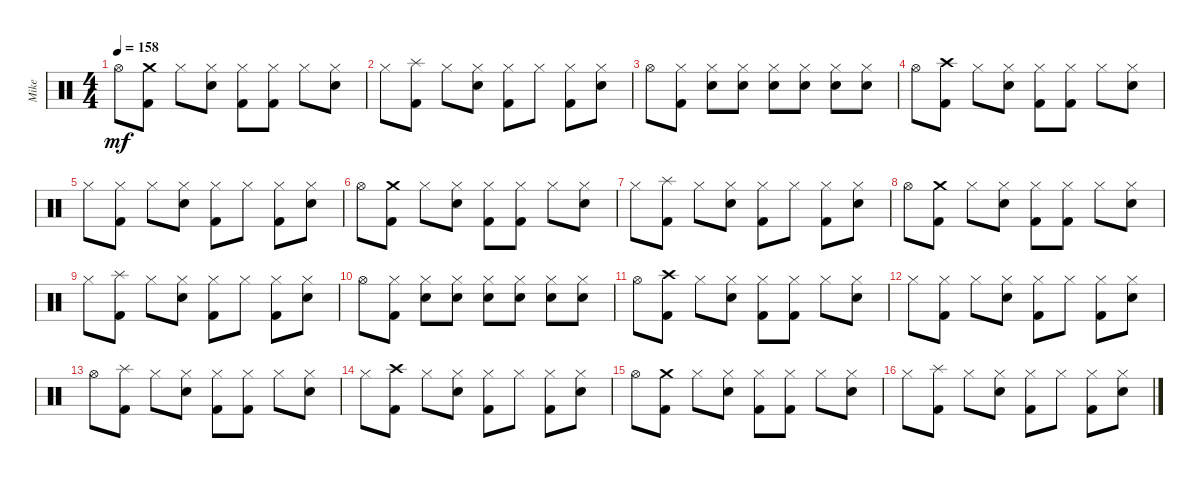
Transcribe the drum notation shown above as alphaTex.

\track ("Mike" "Mike") {instrument percussion}
\staff {score}
\articulation defaults
\ts (4 4)
\tempo 158
\clef neutral
\ks c "Hi-Hat (open)".8{dy mf}
("Crash medium (hit)" "Kick (hit) 2").8 "Hi-Hat (closed)".8 ("Hi-Hat (closed)" "Electric Snare (hit)").8 ("Hi-Hat (closed)" "Kick (hit) 2").8 ("Hi-Hat (closed)" "Kick (hit) 2").8 "Hi-Hat (closed)".8 ("Hi-Hat (closed)" "Electric Snare (hit)").8 |
"Hi-Hat (closed)".8 ("Splash (hit)" "Kick (hit) 2").8 "Hi-Hat (closed)".8 ("Hi-Hat (closed)" "Electric Snare (hit)").8 ("Hi-Hat (closed)" "Kick (hit) 2").8 "Hi-Hat (closed)".8 ("Hi-Hat (closed)" "Kick (hit) 2").8 ("Hi-Hat (closed)" "Electric Snare (hit)").8 |
"Hi-Hat (open)".8 ("Hi-Hat (closed)" "Kick (hit) 2").8 ("Hi-Hat (closed)" "Electric Snare (hit)").8 ("Hi-Hat (closed)" "Electric Snare (hit)").8 ("Hi-Hat (closed)" "Electric Snare (hit)").8 ("Hi-Hat (closed)" "Electric Snare (hit)").8 ("Hi-Hat (closed)" "Electric Snare (hit)").8 ("Hi-Hat (closed)" "Electric Snare (hit)").8 |
"Hi-Hat (open)".8 ("Crash high (hit)" "Kick (hit) 2").8 "Hi-Hat (closed)".8 ("Hi-Hat (closed)" "Electric Snare (hit)").8 ("Hi-Hat (closed)" "Kick (hit) 2").8 ("Hi-Hat (closed)" "Kick (hit) 2").8 "Hi-Hat (closed)".8 ("Hi-Hat (closed)" "Electric Snare (hit)").8 |
"Hi-Hat (closed)".8 ("Hi-Hat (closed)" "Kick (hit) 2").8 "Hi-Hat (closed)".8 ("Hi-Hat (closed)" "Electric Snare (hit)").8 ("Hi-Hat (closed)" "Kick (hit) 2").8 "Hi-Hat (closed)".8 ("Hi-Hat (closed)" "Kick (hit) 2").8 ("Hi-Hat (closed)" "Electric Snare (hit)").8 |
"Hi-Hat (open)".8 ("Crash medium (hit)" "Kick (hit) 2").8 "Hi-Hat (closed)".8 ("Hi-Hat (closed)" "Electric Snare (hit)").8 ("Hi-Hat (closed)" "Kick (hit) 2").8 ("Hi-Hat (closed)" "Kick (hit) 2").8 "Hi-Hat (closed)".8 ("Hi-Hat (closed)" "Electric Snare (hit)").8 |
"Hi-Hat (closed)".8 ("Splash (hit)" "Kick (hit) 2").8 "Hi-Hat (closed)".8 ("Hi-Hat (closed)" "Electric Snare (hit)").8 ("Hi-Hat (closed)" "Kick (hit) 2").8 "Hi-Hat (closed)".8 ("Hi-Hat (closed)" "Kick (hit) 2").8 ("Hi-Hat (closed)" "Electric Snare (hit)").8 |
"Hi-Hat (open)".8 ("Crash medium (hit)" "Kick (hit) 2").8 "Hi-Hat (closed)".8 ("Hi-Hat (closed)" "Electric Snare (hit)").8 ("Hi-Hat (closed)" "Kick (hit) 2").8 ("Hi-Hat (closed)" "Kick (hit) 2").8 "Hi-Hat (closed)".8 ("Hi-Hat (closed)" "Electric Snare (hit)").8 |
"Hi-Hat (closed)".8 ("Splash (hit)" "Kick (hit) 2").8 "Hi-Hat (closed)".8 ("Hi-Hat (closed)" "Electric Snare (hit)").8 ("Hi-Hat (closed)" "Kick (hit) 2").8 "Hi-Hat (closed)".8 ("Hi-Hat (closed)" "Kick (hit) 2").8 ("Hi-Hat (closed)" "Electric Snare (hit)").8 |
"Hi-Hat (open)".8 ("Hi-Hat (closed)" "Kick (hit) 2").8 ("Hi-Hat (closed)" "Electric Snare (hit)").8 ("Hi-Hat (closed)" "Electric Snare (hit)").8 ("Hi-Hat (closed)" "Electric Snare (hit)").8 ("Hi-Hat (closed)" "Electric Snare (hit)").8 ("Hi-Hat (closed)" "Electric Snare (hit)").8 ("Hi-Hat (closed)" "Electric Snare (hit)").8 |
"Hi-Hat (open)".8 ("Crash high (hit)" "Kick (hit) 2").8 "Hi-Hat (closed)".8 ("Hi-Hat (closed)" "Electric Snare (hit)").8 ("Hi-Hat (closed)" "Kick (hit) 2").8 ("Hi-Hat (closed)" "Kick (hit) 2").8 "Hi-Hat (closed)".8 ("Hi-Hat (closed)" "Electric Snare (hit)").8 |
"Hi-Hat (closed)".8 ("Hi-Hat (closed)" "Kick (hit) 2").8 "Hi-Hat (closed)".8 ("Hi-Hat (closed)" "Electric Snare (hit)").8 ("Hi-Hat (closed)" "Kick (hit) 2").8 "Hi-Hat (closed)".8 ("Hi-Hat (closed)" "Kick (hit) 2").8 ("Hi-Hat (closed)" "Electric Snare (hit)").8 |
"Hi-Hat (open)".8 ("Splash (hit)" "Kick (hit) 2").8 "Hi-Hat (closed)".8 ("Hi-Hat (closed)" "Electric Snare (hit)").8 ("Hi-Hat (closed)" "Kick (hit) 2").8 ("Hi-Hat (closed)" "Kick (hit) 2").8 "Hi-Hat (closed)".8 ("Hi-Hat (closed)" "Electric Snare (hit)").8 |
"Hi-Hat (closed)".8 ("Crash high (hit)" "Kick (hit) 2").8 "Hi-Hat (closed)".8 ("Hi-Hat (closed)" "Electric Snare (hit)").8 ("Hi-Hat (closed)" "Kick (hit) 2").8 "Hi-Hat (closed)".8 ("Hi-Hat (closed)" "Kick (hit) 2").8 ("Hi-Hat (closed)" "Electric Snare (hit)").8 |
"Hi-Hat (open)".8 ("Crash medium (hit)" "Kick (hit) 2").8 "Hi-Hat (closed)".8 ("Hi-Hat (closed)" "Electric Snare (hit)").8 ("Hi-Hat (closed)" "Kick (hit) 2").8 ("Hi-Hat (closed)" "Kick (hit) 2").8 "Hi-Hat (closed)".8 ("Hi-Hat (closed)" "Electric Snare (hit)").8 |
"Hi-Hat (closed)".8 ("Splash (hit)" "Kick (hit) 2").8 "Hi-Hat (closed)".8 ("Hi-Hat (closed)" "Electric Snare (hit)").8 ("Hi-Hat (closed)" "Kick (hit) 2").8 "Hi-Hat (closed)".8 ("Hi-Hat (closed)" "Kick (hit) 2").8 ("Hi-Hat (closed)" "Electric Snare (hit)").8
